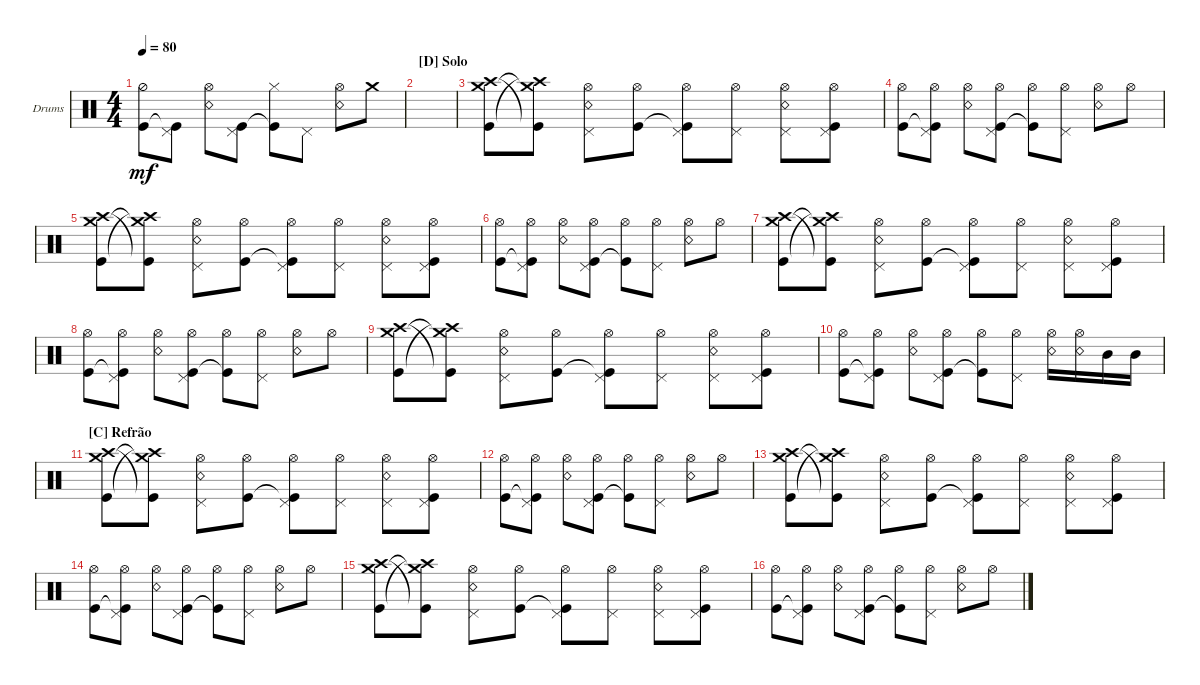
\defaultSystemsLayout 4
\bracketExtendMode groupsimilarinstruments
\firstSystemTrackNameOrientation horizontal
\otherSystemsTrackNameOrientation horizontal
\track ("Drum" "Drums") {multiBarRest instrument percussion}
\staff {score}
\articulation defaults
\ts (4 4)
\tempo 80
\clef neutral
\ks c
("Kick (hit)" "Hi-Hat (half)").8{dy mf} ("Kick (hit)"{t} "Pedal Hi-Hat (hit)").8 ("Snare (rim shot)" "Hi-Hat (open)").8 ("Kick (hit)" "Pedal Hi-Hat (hit)").8 ("Kick (hit)"{t} "Hi-Hat (closed)").8 "Pedal Hi-Hat (hit)".8 ("Snare (rim shot)" "Hi-Hat (open)").8 "Crash medium (hit)".8 |
\section ("D" "Solo")
|
("Crash high (hit)" "Kick (hit)" "Crash medium (hit)").8 ("Kick (hit)"{t} "Crash high (hit)"{t} "Crash medium (hit)"{t}).8 ("Snare (rim shot)" "Pedal Hi-Hat (hit)" "Hi-Hat (open)").8 ("Kick (hit)" "Hi-Hat (open)").8 ("Kick (hit)"{t} "Pedal Hi-Hat (hit)" "Hi-Hat (open)").8 ("Pedal Hi-Hat (hit)" "Hi-Hat (open)").8 ("Snare (rim shot)" "Pedal Hi-Hat (hit)" "Hi-Hat (open)").8 ("Kick (hit)" "Pedal Hi-Hat (hit)" "Hi-Hat (open)").8 |
("Kick (hit)" "Hi-Hat (open)").8 ("Kick (hit)"{t} "Pedal Hi-Hat (hit)" "Hi-Hat (open)").8 ("Snare (rim shot)" "Hi-Hat (open)").8 ("Kick (hit)" "Pedal Hi-Hat (hit)" "Hi-Hat (open)").8 ("Kick (hit)"{t} "Hi-Hat (open)").8 ("Pedal Hi-Hat (hit)" "Hi-Hat (open)").8 ("Snare (rim shot)" "Hi-Hat (open)").8 "Hi-Hat (open)".8 |
("Crash high (hit)" "Kick (hit)" "Crash medium (hit)").8 ("Kick (hit)"{t} "Crash high (hit)"{t} "Crash medium (hit)"{t}).8 ("Snare (rim shot)" "Pedal Hi-Hat (hit)" "Hi-Hat (open)").8 ("Kick (hit)" "Hi-Hat (open)").8 ("Kick (hit)"{t} "Pedal Hi-Hat (hit)" "Hi-Hat (open)").8 ("Pedal Hi-Hat (hit)" "Hi-Hat (open)").8 ("Snare (rim shot)" "Pedal Hi-Hat (hit)" "Hi-Hat (open)").8 ("Kick (hit)" "Pedal Hi-Hat (hit)" "Hi-Hat (open)").8 |
("Kick (hit)" "Hi-Hat (open)").8 ("Kick (hit)"{t} "Pedal Hi-Hat (hit)" "Hi-Hat (open)").8 ("Snare (rim shot)" "Hi-Hat (open)").8 ("Kick (hit)" "Pedal Hi-Hat (hit)" "Hi-Hat (open)").8 ("Kick (hit)"{t} "Hi-Hat (open)").8 ("Pedal Hi-Hat (hit)" "Hi-Hat (open)").8 ("Snare (rim shot)" "Hi-Hat (open)").8 "Hi-Hat (open)".8 |
("Crash high (hit)" "Kick (hit)" "Crash medium (hit)").8 ("Kick (hit)"{t} "Crash high (hit)"{t} "Crash medium (hit)"{t}).8 ("Snare (rim shot)" "Pedal Hi-Hat (hit)" "Hi-Hat (open)").8 ("Kick (hit)" "Hi-Hat (open)").8 ("Kick (hit)"{t} "Pedal Hi-Hat (hit)" "Hi-Hat (open)").8 ("Pedal Hi-Hat (hit)" "Hi-Hat (open)").8 ("Snare (rim shot)" "Pedal Hi-Hat (hit)" "Hi-Hat (open)").8 ("Kick (hit)" "Pedal Hi-Hat (hit)" "Hi-Hat (open)").8 |
("Kick (hit)" "Hi-Hat (open)").8 ("Kick (hit)"{t} "Pedal Hi-Hat (hit)" "Hi-Hat (open)").8 ("Snare (rim shot)" "Hi-Hat (open)").8 ("Kick (hit)" "Pedal Hi-Hat (hit)" "Hi-Hat (open)").8 ("Kick (hit)"{t} "Hi-Hat (open)").8 ("Pedal Hi-Hat (hit)" "Hi-Hat (open)").8 ("Snare (rim shot)" "Hi-Hat (open)").8 "Hi-Hat (open)".8 |
("Crash high (hit)" "Kick (hit)" "Crash medium (hit)").8 ("Kick (hit)"{t} "Crash high (hit)"{t} "Crash medium (hit)"{t}).8 ("Snare (rim shot)" "Pedal Hi-Hat (hit)" "Hi-Hat (open)").8 ("Kick (hit)" "Hi-Hat (open)").8 ("Kick (hit)"{t} "Pedal Hi-Hat (hit)" "Hi-Hat (open)").8 ("Pedal Hi-Hat (hit)" "Hi-Hat (open)").8 ("Snare (rim shot)" "Pedal Hi-Hat (hit)" "Hi-Hat (open)").8 ("Kick (hit)" "Pedal Hi-Hat (hit)" "Hi-Hat (open)").8 |
("Kick (hit)" "Hi-Hat (open)").8 ("Kick (hit)"{t} "Pedal Hi-Hat (hit)" "Hi-Hat (open)").8 ("Snare (rim shot)" "Hi-Hat (open)").8 ("Kick (hit)" "Pedal Hi-Hat (hit)" "Hi-Hat (open)").8 ("Kick (hit)"{t} "Hi-Hat (open)").8 ("Pedal Hi-Hat (hit)" "Hi-Hat (open)").8 ("Snare (rim shot)" "Hi-Hat (open)").16 ("Hi-Hat (open)" "Snare (rim shot)").16 "Mid Tom (hit)".16 "Mid Tom (hit)".16 |
\section ("C" "Refrão")
("Crash high (hit)" "Kick (hit)" "Crash medium (hit)").8 ("Kick (hit)"{t} "Crash high (hit)"{t} "Crash medium (hit)"{t}).8 ("Snare (rim shot)" "Pedal Hi-Hat (hit)" "Hi-Hat (open)").8 ("Kick (hit)" "Hi-Hat (open)").8 ("Kick (hit)"{t} "Pedal Hi-Hat (hit)" "Hi-Hat (open)").8 ("Pedal Hi-Hat (hit)" "Hi-Hat (open)").8 ("Snare (rim shot)" "Pedal Hi-Hat (hit)" "Hi-Hat (open)").8 ("Kick (hit)" "Pedal Hi-Hat (hit)" "Hi-Hat (open)").8 |
("Kick (hit)" "Hi-Hat (open)").8 ("Kick (hit)"{t} "Pedal Hi-Hat (hit)" "Hi-Hat (open)").8 ("Snare (rim shot)" "Hi-Hat (open)").8 ("Kick (hit)" "Pedal Hi-Hat (hit)" "Hi-Hat (open)").8 ("Kick (hit)"{t} "Hi-Hat (open)").8 ("Pedal Hi-Hat (hit)" "Hi-Hat (open)").8 ("Snare (rim shot)" "Hi-Hat (open)").8 "Hi-Hat (open)".8 |
("Crash high (hit)" "Kick (hit)" "Crash medium (hit)").8 ("Kick (hit)"{t} "Crash high (hit)"{t} "Crash medium (hit)"{t}).8 ("Snare (rim shot)" "Pedal Hi-Hat (hit)" "Hi-Hat (open)").8 ("Kick (hit)" "Hi-Hat (open)").8 ("Kick (hit)"{t} "Pedal Hi-Hat (hit)" "Hi-Hat (open)").8 ("Pedal Hi-Hat (hit)" "Hi-Hat (open)").8 ("Snare (rim shot)" "Pedal Hi-Hat (hit)" "Hi-Hat (open)").8 ("Kick (hit)" "Pedal Hi-Hat (hit)" "Hi-Hat (open)").8 |
("Kick (hit)" "Hi-Hat (open)").8 ("Kick (hit)"{t} "Pedal Hi-Hat (hit)" "Hi-Hat (open)").8 ("Snare (rim shot)" "Hi-Hat (open)").8 ("Kick (hit)" "Pedal Hi-Hat (hit)" "Hi-Hat (open)").8 ("Kick (hit)"{t} "Hi-Hat (open)").8 ("Pedal Hi-Hat (hit)" "Hi-Hat (open)").8 ("Snare (rim shot)" "Hi-Hat (open)").8 "Hi-Hat (open)".8 |
("Crash high (hit)" "Kick (hit)" "Crash medium (hit)").8 ("Kick (hit)"{t} "Crash high (hit)"{t} "Crash medium (hit)"{t}).8 ("Snare (rim shot)" "Pedal Hi-Hat (hit)" "Hi-Hat (open)").8 ("Kick (hit)" "Hi-Hat (open)").8 ("Kick (hit)"{t} "Pedal Hi-Hat (hit)" "Hi-Hat (open)").8 ("Pedal Hi-Hat (hit)" "Hi-Hat (open)").8 ("Snare (rim shot)" "Pedal Hi-Hat (hit)" "Hi-Hat (open)").8 ("Kick (hit)" "Pedal Hi-Hat (hit)" "Hi-Hat (open)").8 |
("Kick (hit)" "Hi-Hat (open)").8 ("Kick (hit)"{t} "Pedal Hi-Hat (hit)" "Hi-Hat (open)").8 ("Snare (rim shot)" "Hi-Hat (open)").8 ("Kick (hit)" "Pedal Hi-Hat (hit)" "Hi-Hat (open)").8 ("Kick (hit)"{t} "Hi-Hat (open)").8 ("Pedal Hi-Hat (hit)" "Hi-Hat (open)").8 ("Snare (rim shot)" "Hi-Hat (open)").8 "Hi-Hat (open)".8
